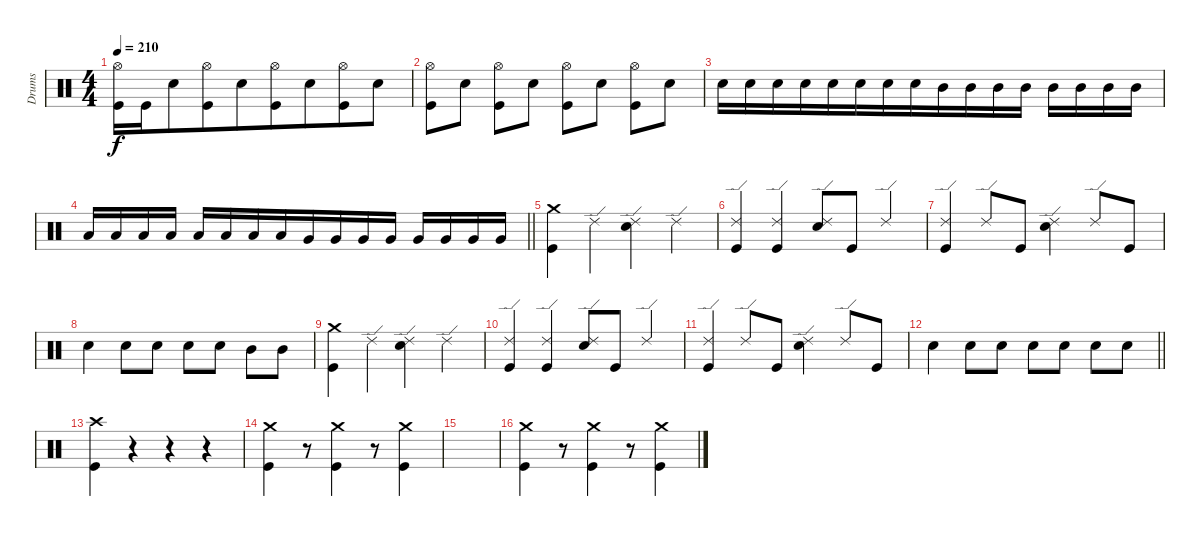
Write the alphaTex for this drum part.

\track ("Drums" "Drums") {instrument percussion}
\staff {score}
\articulation defaults
\ts (4 4)
\tempo 210
\clef neutral
\ks c
("Hi-Hat (open)" "Kick (hit)").16{dy f} "Kick (hit)".16 "Electric Snare (hit)".8{beam merge} ("Hi-Hat (open)" "Kick (hit)").8 "Electric Snare (hit)".8{beam merge} ("Hi-Hat (open)" "Kick (hit)").8 "Electric Snare (hit)".8{beam merge} ("Hi-Hat (open)" "Kick (hit)").8 "Electric Snare (hit)".8 |
("Hi-Hat (open)" "Kick (hit)").8 "Electric Snare (hit)".8 ("Hi-Hat (open)" "Kick (hit)").8 "Electric Snare (hit)".8 ("Hi-Hat (open)" "Kick (hit)").8 "Electric Snare (hit)".8 ("Hi-Hat (open)" "Kick (hit)").8 "Electric Snare (hit)".8 |
"Electric Snare (hit)".16 "Electric Snare (hit)".16 "Electric Snare (hit)".16 "Electric Snare (hit)".16{beam merge} "Electric Snare (hit)".16 "Electric Snare (hit)".16 "Electric Snare (hit)".16 "Electric Snare (hit)".16{beam merge} "Mid Tom (hit)".16 "Mid Tom (hit)".16{beam merge} "Mid Tom (hit)".16 "Mid Tom (hit)".16 "Mid Tom (hit)".16 "Mid Tom (hit)".16 "Mid Tom (hit)".16 "Mid Tom (hit)".16 |
\barLineRight lightlight "Low Tom (hit)".16 "Low Tom (hit)".16 "Low Tom (hit)".16{beam merge} "Low Tom (hit)".16 "Low Tom (hit)".16{beam merge} "Low Tom (hit)".16{beam merge} "Low Tom (hit)".16 "Low Tom (hit)".16{beam merge} "Very Low Tom (hit)".16{beam merge} "Very Low Tom (hit)".16{beam merge} "Very Low Tom (hit)".16 "Very Low Tom (hit)".16 "Very Low Tom (hit)".16 "Very Low Tom (hit)".16{beam merge} "Very Low Tom (hit)".16{beam merge} "Very Low Tom (hit)".16
|
("Crash medium (hit)" "Kick (hit)").4{beam merge} "Ride (edge) 2".4{beam merge} ("Ride (edge) 2" "Electric Snare (hit)").4 "Ride (edge) 2".4 |
("Ride (edge) 2" "Kick (hit)").4{beam merge} ("Ride (edge) 2" "Kick (hit)").4{beam merge} ("Ride (edge) 2" "Electric Snare (hit)").8{beam merge} "Kick (hit)".8{beam merge} "Ride (edge) 2".4 |
("Ride (edge) 2" "Kick (hit)").4 "Ride (edge) 2".8{beam merge} "Kick (hit)".8 ("Ride (edge) 2" "Electric Snare (hit)").4 "Ride (edge) 2".8 "Kick (hit)".8 |
"Electric Snare (hit)".4{beam merge} "Electric Snare (hit)".8 "Electric Snare (hit)".8 "Electric Snare (hit)".8{beam merge} "Electric Snare (hit)".8 "Mid Tom (hit)".8 "Mid Tom (hit)".8 |
("Crash medium (hit)" "Kick (hit)").4{beam merge} "Ride (edge) 2".4{beam merge} ("Ride (edge) 2" "Electric Snare (hit)").4 "Ride (edge) 2".4 |
("Ride (edge) 2" "Kick (hit)").4{beam merge} ("Ride (edge) 2" "Kick (hit)").4{beam merge} ("Ride (edge) 2" "Electric Snare (hit)").8{beam merge} "Kick (hit)".8{beam merge} "Ride (edge) 2".4 |
("Ride (edge) 2" "Kick (hit)").4 "Ride (edge) 2".8{beam merge} "Kick (hit)".8 ("Ride (edge) 2" "Electric Snare (hit)").4 "Ride (edge) 2".8 "Kick (hit)".8 |
\barLineRight lightlight "Electric Snare (hit)".4 "Electric Snare (hit)".8 "Electric Snare (hit)".8 "Electric Snare (hit)".8{beam merge} "Electric Snare (hit)".8 "Electric Snare (hit)".8{beam merge} "Electric Snare (hit)".8
|
("Crash high (hit)" "Kick (hit)").4{beam merge} r.4 r.4 r.4 |
("Crash medium (hit)" "Kick (hit)").4 r.8{beam merge} ("Crash medium (hit)" "Kick (hit)").4 r.8 ("Crash medium (hit)" "Kick (hit)").4 |
|
("Crash medium (hit)" "Kick (hit)").4 r.8{beam merge} ("Crash medium (hit)" "Kick (hit)").4 r.8 ("Crash medium (hit)" "Kick (hit)").4
